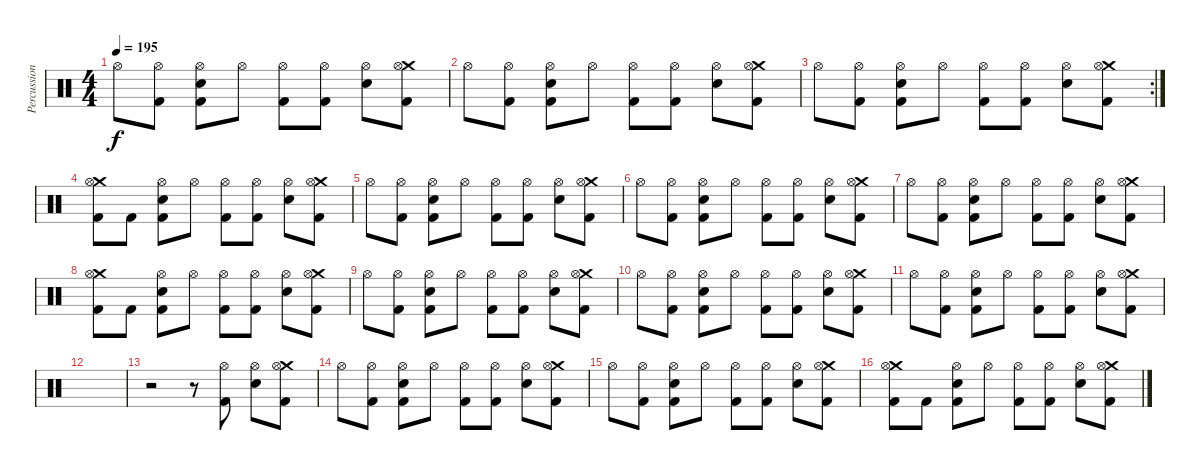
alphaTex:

\track ("Percussion" "Percussion") {instrument percussion}
\staff {score}
\articulation defaults
\ts (4 4)
\tempo 195
\clef neutral
\ks c "Hi-Hat (open)".8{dy f}
("Hi-Hat (open)" "Kick (hit) 2").8 ("Hi-Hat (open)" "Snare (hit) 2" "Kick (hit) 2").8 "Hi-Hat (open)".8 ("Hi-Hat (open)" "Kick (hit) 2").8 ("Hi-Hat (open)" "Kick (hit) 2").8 ("Hi-Hat (open)" "Snare (hit) 2").8 ("Crash medium (hit)" "Hi-Hat (open)" "Kick (hit) 2").8 |
"Hi-Hat (open)".8 ("Hi-Hat (open)" "Kick (hit) 2").8 ("Hi-Hat (open)" "Snare (hit) 2" "Kick (hit) 2").8 "Hi-Hat (open)".8 ("Hi-Hat (open)" "Kick (hit) 2").8 ("Hi-Hat (open)" "Kick (hit) 2").8 ("Hi-Hat (open)" "Snare (hit) 2").8 ("Crash medium (hit)" "Hi-Hat (open)" "Kick (hit) 2").8 |
\rc 2 "Hi-Hat (open)".8
("Hi-Hat (open)" "Kick (hit) 2").8 ("Hi-Hat (open)" "Snare (hit) 2" "Kick (hit) 2").8 "Hi-Hat (open)".8 ("Hi-Hat (open)" "Kick (hit) 2").8 ("Hi-Hat (open)" "Kick (hit) 2").8 ("Hi-Hat (open)" "Snare (hit) 2").8 ("Crash medium (hit)" "Hi-Hat (open)" "Kick (hit) 2").8 |
("Crash medium (hit)" "Hi-Hat (open)" "Kick (hit) 2").8 "Kick (hit) 2".8 ("Hi-Hat (open)" "Snare (hit) 2" "Kick (hit) 2").8 "Hi-Hat (open)".8 ("Hi-Hat (open)" "Kick (hit) 2").8 ("Hi-Hat (open)" "Kick (hit) 2").8 ("Hi-Hat (open)" "Snare (hit) 2").8 ("Crash medium (hit)" "Hi-Hat (open)" "Kick (hit) 2").8 |
"Hi-Hat (open)".8 ("Hi-Hat (open)" "Kick (hit) 2").8 ("Hi-Hat (open)" "Snare (hit) 2" "Kick (hit) 2").8 "Hi-Hat (open)".8 ("Hi-Hat (open)" "Kick (hit) 2").8 ("Hi-Hat (open)" "Kick (hit) 2").8 ("Hi-Hat (open)" "Snare (hit) 2").8 ("Crash medium (hit)" "Hi-Hat (open)" "Kick (hit) 2").8 |
"Hi-Hat (open)".8 ("Hi-Hat (open)" "Kick (hit) 2").8 ("Hi-Hat (open)" "Snare (hit) 2" "Kick (hit) 2").8 "Hi-Hat (open)".8 ("Hi-Hat (open)" "Kick (hit) 2").8 ("Hi-Hat (open)" "Kick (hit) 2").8 ("Hi-Hat (open)" "Snare (hit) 2").8 ("Crash medium (hit)" "Hi-Hat (open)" "Kick (hit) 2").8 |
"Hi-Hat (open)".8 ("Hi-Hat (open)" "Kick (hit) 2").8 ("Hi-Hat (open)" "Snare (hit) 2" "Kick (hit) 2").8 "Hi-Hat (open)".8 ("Hi-Hat (open)" "Kick (hit) 2").8 ("Hi-Hat (open)" "Kick (hit) 2").8 ("Hi-Hat (open)" "Snare (hit) 2").8 ("Crash medium (hit)" "Hi-Hat (open)" "Kick (hit) 2").8 |
("Crash medium (hit)" "Hi-Hat (open)" "Kick (hit) 2").8 "Kick (hit) 2".8 ("Hi-Hat (open)" "Snare (hit) 2" "Kick (hit) 2").8 "Hi-Hat (open)".8 ("Hi-Hat (open)" "Kick (hit) 2").8 ("Hi-Hat (open)" "Kick (hit) 2").8 ("Hi-Hat (open)" "Snare (hit) 2").8 ("Crash medium (hit)" "Hi-Hat (open)" "Kick (hit) 2").8 |
"Hi-Hat (open)".8 ("Hi-Hat (open)" "Kick (hit) 2").8 ("Hi-Hat (open)" "Snare (hit) 2" "Kick (hit) 2").8 "Hi-Hat (open)".8 ("Hi-Hat (open)" "Kick (hit) 2").8 ("Hi-Hat (open)" "Kick (hit) 2").8 ("Hi-Hat (open)" "Snare (hit) 2").8 ("Crash medium (hit)" "Hi-Hat (open)" "Kick (hit) 2").8 |
"Hi-Hat (open)".8 ("Hi-Hat (open)" "Kick (hit) 2").8 ("Hi-Hat (open)" "Snare (hit) 2" "Kick (hit) 2").8 "Hi-Hat (open)".8 ("Hi-Hat (open)" "Kick (hit) 2").8 ("Hi-Hat (open)" "Kick (hit) 2").8 ("Hi-Hat (open)" "Snare (hit) 2").8 ("Crash medium (hit)" "Hi-Hat (open)" "Kick (hit) 2").8 |
"Hi-Hat (open)".8 ("Hi-Hat (open)" "Kick (hit) 2").8 ("Hi-Hat (open)" "Snare (hit) 2" "Kick (hit) 2").8 "Hi-Hat (open)".8 ("Hi-Hat (open)" "Kick (hit) 2").8 ("Hi-Hat (open)" "Kick (hit) 2").8 ("Hi-Hat (open)" "Snare (hit) 2").8 ("Crash medium (hit)" "Hi-Hat (open)" "Kick (hit) 2").8 |
|
r.2 r.8 ("Hi-Hat (open)" "Kick (hit) 2").8 ("Hi-Hat (open)" "Snare (hit) 2").8 ("Crash medium (hit)" "Hi-Hat (open)" "Kick (hit) 2").8 |
"Hi-Hat (open)".8 ("Hi-Hat (open)" "Kick (hit) 2").8 ("Hi-Hat (open)" "Snare (hit) 2" "Kick (hit) 2").8 "Hi-Hat (open)".8 ("Hi-Hat (open)" "Kick (hit) 2").8 ("Hi-Hat (open)" "Kick (hit) 2").8 ("Hi-Hat (open)" "Snare (hit) 2").8 ("Crash medium (hit)" "Hi-Hat (open)" "Kick (hit) 2").8 |
"Hi-Hat (open)".8 ("Hi-Hat (open)" "Kick (hit) 2").8 ("Hi-Hat (open)" "Snare (hit) 2" "Kick (hit) 2").8 "Hi-Hat (open)".8 ("Hi-Hat (open)" "Kick (hit) 2").8 ("Hi-Hat (open)" "Kick (hit) 2").8 ("Hi-Hat (open)" "Snare (hit) 2").8 ("Crash medium (hit)" "Hi-Hat (open)" "Kick (hit) 2").8 |
("Crash medium (hit)" "Hi-Hat (open)" "Kick (hit) 2").8 "Kick (hit) 2".8 ("Hi-Hat (open)" "Snare (hit) 2" "Kick (hit) 2").8 "Hi-Hat (open)".8 ("Hi-Hat (open)" "Kick (hit) 2").8 ("Hi-Hat (open)" "Kick (hit) 2").8 ("Hi-Hat (open)" "Snare (hit) 2").8 ("Crash medium (hit)" "Hi-Hat (open)" "Kick (hit) 2").8
